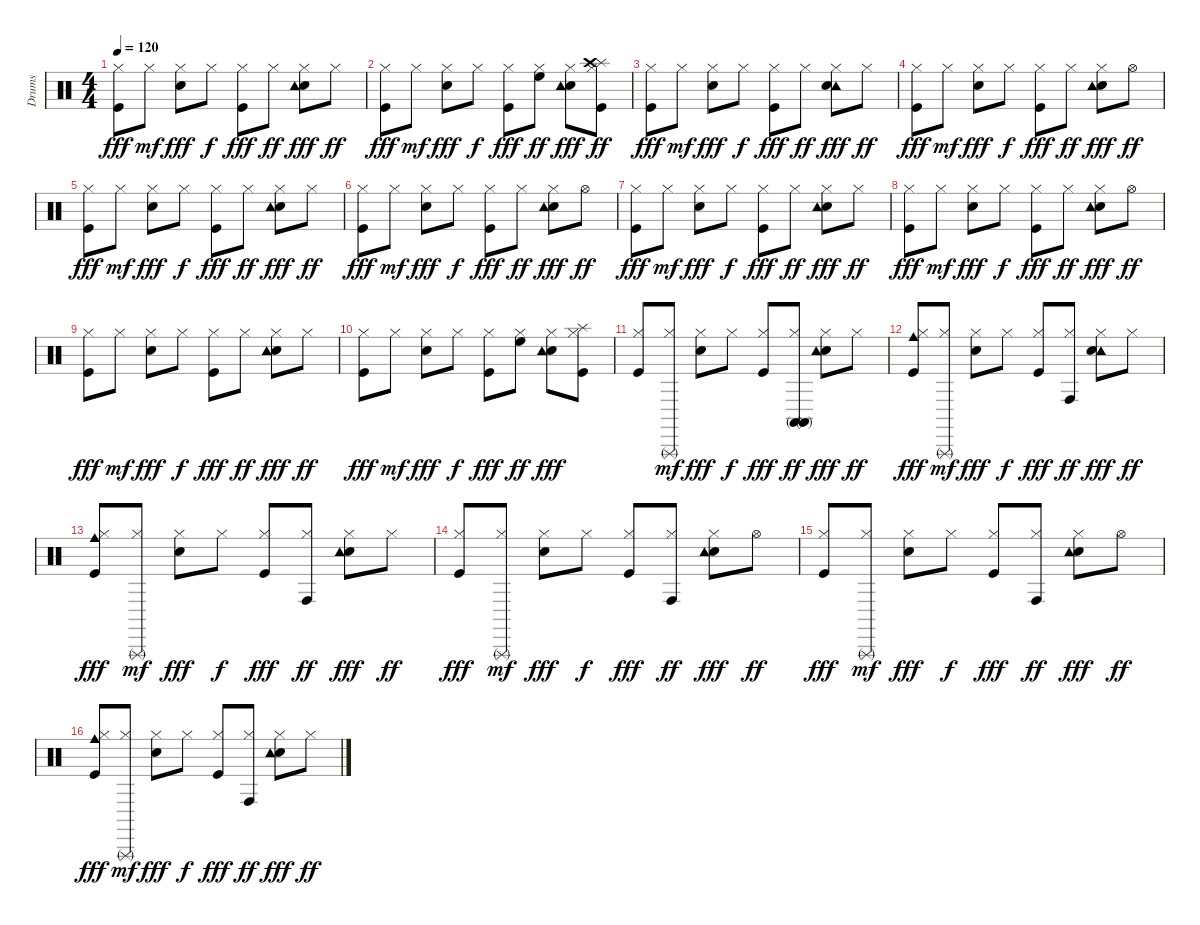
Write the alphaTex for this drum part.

\track ("Drums " "Drums ") {instrument percussion}
\staff {score}
\articulation defaults
\ts (4 4)
\tempo 120
\clef neutral
\ks c
("Hi-Hat (closed)" "Kick (hit)").8{dy fff} "Hi-Hat (closed)".8{dy mf} ("Hi-Hat (closed)" "Electric Snare (hit)").8{dy fff} "Hi-Hat (closed)".8{dy f} ("Hi-Hat (closed)" "Kick (hit)").8{dy fff} "Hi-Hat (closed)".8{dy ff} ("Electric Snare (hit)" "Tambourine (hit)" "Hi-Hat (closed)").8{dy fff} "Hi-Hat (closed)".8{dy ff} |
("Hi-Hat (closed)" "Kick (hit)").8{dy fff} "Hi-Hat (closed)".8{dy mf} ("Electric Snare (hit)" "Hi-Hat (closed)").8{dy fff} "Hi-Hat (closed)".8{dy f} ("Hi-Hat (closed)" "Kick (hit)").8{dy fff} ("High Floor Tom (hit)" "Hi-Hat (closed)").8{dy ff} ("Electric Snare (hit)" "Tambourine (hit)" "Hi-Hat (closed)").8{dy fff} ("Hi-Hat (closed)" "Kick (hit)" "Splash (hit)" "Crash high (hit)").8{dy ff} |
("Hi-Hat (closed)" "Kick (hit)").8{dy fff} "Hi-Hat (closed)".8{dy mf} ("Hi-Hat (closed)" "Electric Snare (hit)").8{dy fff} "Hi-Hat (closed)".8{dy f} ("Hi-Hat (closed)" "Kick (hit)").8{dy fff} "Hi-Hat (closed)".8{dy ff} ("Tambourine (hit)" "Hi-Hat (closed)" "Electric Snare (hit)").8{dy fff} "Hi-Hat (closed)".8{dy ff} |
("Hi-Hat (closed)" "Kick (hit)").8{dy fff} "Hi-Hat (closed)".8{dy mf} ("Hi-Hat (closed)" "Electric Snare (hit)").8{dy fff} "Hi-Hat (closed)".8{dy f} ("Hi-Hat (closed)" "Kick (hit)").8{dy fff} "Hi-Hat (closed)".8{dy ff} ("Electric Snare (hit)" "Tambourine (hit)" "Hi-Hat (closed)").8{dy fff} "Hi-Hat (open)".8{dy ff} |
("Hi-Hat (closed)" "Kick (hit)").8{dy fff} "Hi-Hat (closed)".8{dy mf} ("Electric Snare (hit)" "Hi-Hat (closed)").8{dy fff} "Hi-Hat (closed)".8{dy f} ("Hi-Hat (closed)" "Kick (hit)").8{dy fff} "Hi-Hat (closed)".8{dy ff} ("Electric Snare (hit)" "Tambourine (hit)" "Hi-Hat (closed)").8{dy fff} "Hi-Hat (closed)".8{dy ff} |
("Hi-Hat (closed)" "Kick (hit)").8{dy fff} "Hi-Hat (closed)".8{dy mf} ("Hi-Hat (closed)" "Electric Snare (hit)").8{dy fff} "Hi-Hat (closed)".8{dy f} ("Hi-Hat (closed)" "Kick (hit)").8{dy fff} "Hi-Hat (closed)".8{dy ff} ("Electric Snare (hit)" "Hi-Hat (closed)" "Tambourine (hit)").8{dy fff} "Hi-Hat (open)".8{dy ff} |
("Hi-Hat (closed)" "Kick (hit)").8{dy fff} "Hi-Hat (closed)".8{dy mf} ("Hi-Hat (closed)" "Electric Snare (hit)").8{dy fff} "Hi-Hat (closed)".8{dy f} ("Hi-Hat (closed)" "Kick (hit)").8{dy fff} "Hi-Hat (closed)".8{dy ff} ("Electric Snare (hit)" "Tambourine (hit)" "Hi-Hat (closed)").8{dy fff} "Hi-Hat (closed)".8{dy ff} |
("Hi-Hat (closed)" "Kick (hit)").8{dy fff} "Hi-Hat (closed)".8{dy mf} ("Hi-Hat (closed)" "Electric Snare (hit)").8{dy fff} "Hi-Hat (closed)".8{dy f} ("Hi-Hat (closed)" "Kick (hit)").8{dy fff} "Hi-Hat (closed)".8{dy ff} ("Electric Snare (hit)" "Tambourine (hit)" "Hi-Hat (closed)").8{dy fff} "Hi-Hat (open)".8{dy ff} |
("Hi-Hat (closed)" "Kick (hit)").8{dy fff} "Hi-Hat (closed)".8{dy mf} ("Hi-Hat (closed)" "Electric Snare (hit)").8{dy fff} "Hi-Hat (closed)".8{dy f} ("Hi-Hat (closed)" "Kick (hit)").8{dy fff} "Hi-Hat (closed)".8{dy ff} ("Electric Snare (hit)" "Tambourine (hit)" "Hi-Hat (closed)").8{dy fff} "Hi-Hat (closed)".8{dy ff} |
("Hi-Hat (closed)" "Kick (hit)").8{dy fff} "Hi-Hat (closed)".8{dy mf} ("Hi-Hat (closed)" "Electric Snare (hit)").8{dy fff} "Hi-Hat (closed)".8{dy f} ("Hi-Hat (closed)" "Kick (hit)").8{dy fff} ("High Floor Tom (hit)" "Hi-Hat (closed)").8{dy ff} ("Electric Snare (hit)" "Tambourine (hit)" "Hi-Hat (closed)").8{dy fff} ("Splash (hit)" "Hi-Hat (closed)" "Kick (hit)").8 |
("Hi-Hat (closed)" "Kick (hit)").8 ("Triangle (rnute)" "Hi-Hat (closed)").8{dy mf} ("Hi-Hat (closed)" "Electric Snare (hit)").8{dy fff} "Hi-Hat (closed)".8{dy f} ("Hi-Hat (closed)" "Kick (hit)").8{dy fff} ("Conga high (mute)" "Hi-Hat (closed)" "Conga high (mute)").8{dy ff} ("Electric Snare (hit)" "Tambourine (hit)" "Hi-Hat (closed)").8{dy fff} "Hi-Hat (closed)".8{dy ff} |
("Hi-Hat (closed)" "Kick (hit)" "Cowbell medium (hit)").8{dy fff} ("Triangle (rnute)" "Hi-Hat (closed)").8{dy mf} ("Hi-Hat (closed)" "Electric Snare (hit)").8{dy fff} "Hi-Hat (closed)".8{dy f} ("Hi-Hat (closed)" "Kick (hit)").8{dy fff} ("Conga high (hit)" "Hi-Hat (closed)").8{dy ff} ("Tambourine (hit)" "Hi-Hat (closed)" "Electric Snare (hit)").8{dy fff} "Hi-Hat (closed)".8{dy ff} |
("Hi-Hat (closed)" "Kick (hit)" "Cowbell medium (hit)").8{dy fff} ("Triangle (rnute)" "Hi-Hat (closed)").8{dy mf} ("Hi-Hat (closed)" "Electric Snare (hit)").8{dy fff} "Hi-Hat (closed)".8{dy f} ("Hi-Hat (closed)" "Kick (hit)").8{dy fff} ("Conga high (hit)" "Hi-Hat (closed)").8{dy ff} ("Electric Snare (hit)" "Tambourine (hit)" "Hi-Hat (closed)").8{dy fff} "Hi-Hat (closed)".8{dy ff} |
("Hi-Hat (closed)" "Kick (hit)").8{dy fff} ("Hi-Hat (closed)" "Triangle (rnute)").8{dy mf} ("Hi-Hat (closed)" "Electric Snare (hit)").8{dy fff} "Hi-Hat (closed)".8{dy f} ("Hi-Hat (closed)" "Kick (hit)").8{dy fff} ("Conga high (hit)" "Hi-Hat (closed)").8{dy ff} ("Electric Snare (hit)" "Hi-Hat (closed)" "Tambourine (hit)").8{dy fff} "Hi-Hat (open)".8{dy ff} |
("Hi-Hat (closed)" "Kick (hit)").8{dy fff} ("Triangle (rnute)" "Hi-Hat (closed)").8{dy mf} ("Hi-Hat (closed)" "Electric Snare (hit)").8{dy fff} "Hi-Hat (closed)".8{dy f} ("Hi-Hat (closed)" "Kick (hit)").8{dy fff} ("Conga high (hit)" "Hi-Hat (closed)").8{dy ff} ("Electric Snare (hit)" "Tambourine (hit)" "Hi-Hat (closed)").8{dy fff} "Hi-Hat (open)".8{dy ff} |
("Hi-Hat (closed)" "Kick (hit)" "Cowbell medium (hit)").8{dy fff} ("Triangle (rnute)" "Hi-Hat (closed)").8{dy mf} ("Hi-Hat (closed)" "Electric Snare (hit)").8{dy fff} "Hi-Hat (closed)".8{dy f} ("Hi-Hat (closed)" "Kick (hit)").8{dy fff} ("Conga high (hit)" "Hi-Hat (closed)").8{dy ff} ("Electric Snare (hit)" "Tambourine (hit)" "Hi-Hat (closed)").8{dy fff} "Hi-Hat (closed)".8{dy ff}
